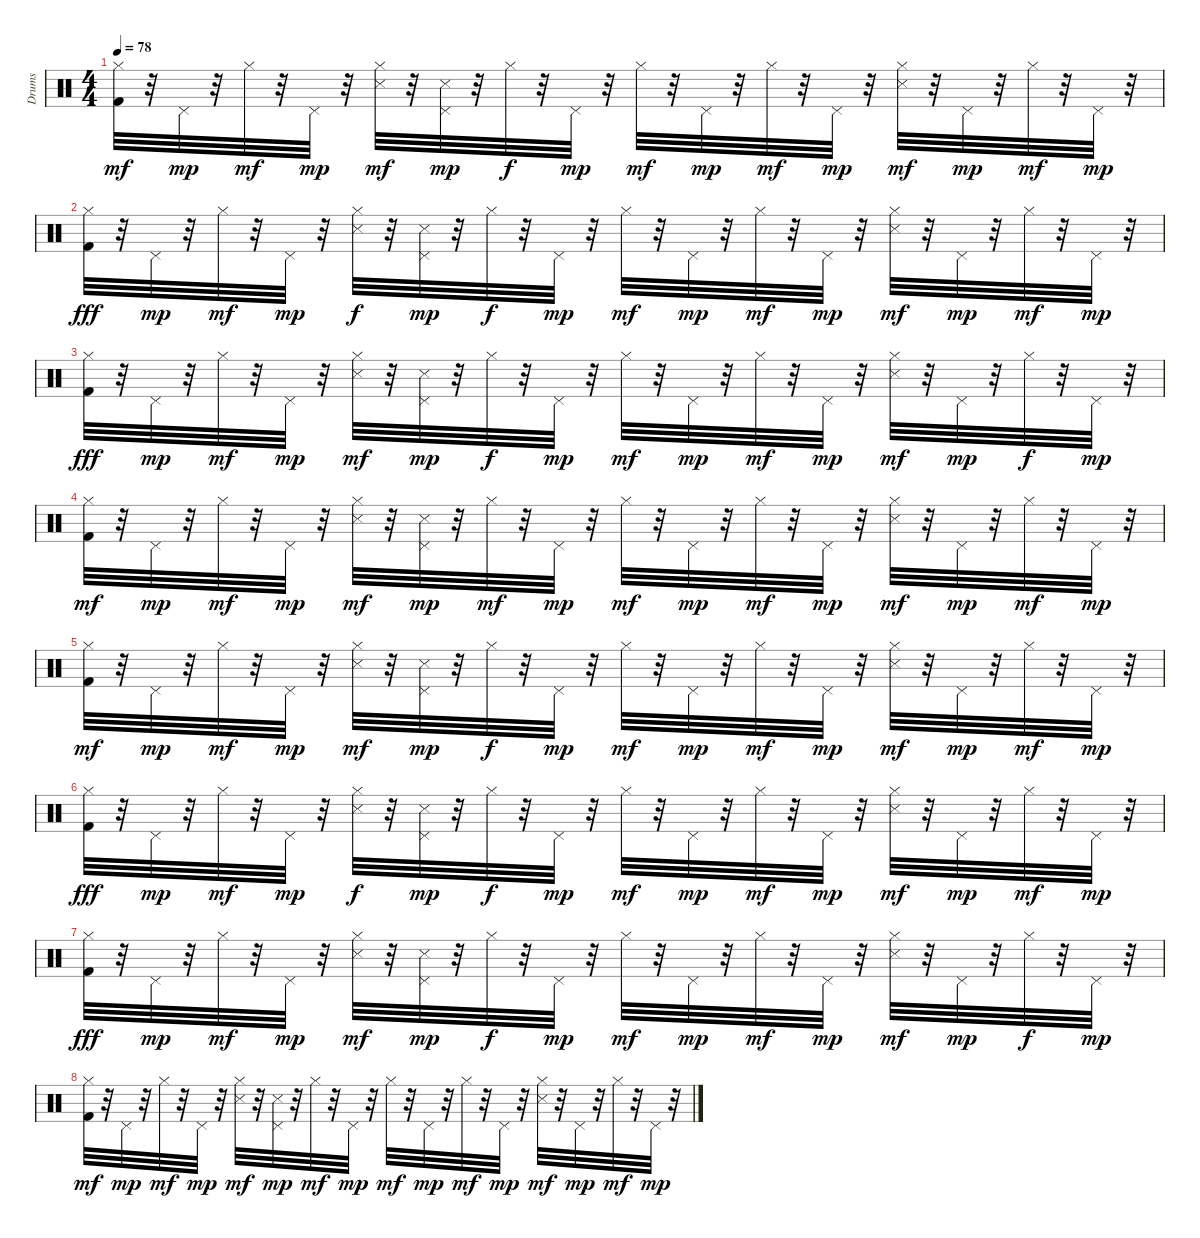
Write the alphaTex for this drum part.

\track ("Drums   " "Drums   ") {instrument percussion}
\staff {score}
\articulation defaults
\ts (4 4)
\tempo 78
\clef neutral
\ks c
("Kick (hit) 2" "Hi-Hat (closed)").32{dy mf} r.32 "Pedal Hi-Hat (hit)".32{dy mp} r.32 "Hi-Hat (closed)".32{dy mf} r.32 "Pedal Hi-Hat (hit)".32{dy mp} r.32 ("Hi-Hat (closed)" "Snare (side stick) 3").32{dy mf} r.32 ("Snare (side stick) 3" "Pedal Hi-Hat (hit)").32{dy mp} r.32 "Hi-Hat (closed)".32{dy f} r.32 "Pedal Hi-Hat (hit)".32{dy mp} r.32 "Hi-Hat (closed)".32{dy mf} r.32 "Pedal Hi-Hat (hit)".32{dy mp} r.32 "Hi-Hat (closed)".32{dy mf} r.32 "Pedal Hi-Hat (hit)".32{dy mp} r.32 ("Snare (side stick) 3" "Hi-Hat (closed)").32{dy mf} r.32 "Pedal Hi-Hat (hit)".32{dy mp} r.32 "Hi-Hat (closed)".32{dy mf} r.32 "Pedal Hi-Hat (hit)".32{dy mp} r.32 |
("Hi-Hat (closed)" "Kick (hit) 2").32{dy fff} r.32 "Pedal Hi-Hat (hit)".32{dy mp} r.32 "Hi-Hat (closed)".32{dy mf} r.32 "Pedal Hi-Hat (hit)".32{dy mp} r.32 ("Snare (side stick) 3" "Hi-Hat (closed)").32{dy f} r.32 ("Snare (side stick) 3" "Pedal Hi-Hat (hit)").32{dy mp} r.32 "Hi-Hat (closed)".32{dy f} r.32 "Pedal Hi-Hat (hit)".32{dy mp} r.32 "Hi-Hat (closed)".32{dy mf} r.32 "Pedal Hi-Hat (hit)".32{dy mp} r.32 "Hi-Hat (closed)".32{dy mf} r.32 "Pedal Hi-Hat (hit)".32{dy mp} r.32 ("Snare (side stick) 3" "Hi-Hat (closed)").32{dy mf} r.32 "Pedal Hi-Hat (hit)".32{dy mp} r.32 "Hi-Hat (closed)".32{dy mf} r.32 "Pedal Hi-Hat (hit)".32{dy mp} r.32 |
("Hi-Hat (closed)" "Kick (hit) 2").32{dy fff} r.32 "Pedal Hi-Hat (hit)".32{dy mp} r.32 "Hi-Hat (closed)".32{dy mf} r.32 "Pedal Hi-Hat (hit)".32{dy mp} r.32 ("Snare (side stick) 3" "Hi-Hat (closed)").32{dy mf} r.32 ("Snare (side stick) 3" "Pedal Hi-Hat (hit)").32{dy mp} r.32 "Hi-Hat (closed)".32{dy f} r.32 "Pedal Hi-Hat (hit)".32{dy mp} r.32 "Hi-Hat (closed)".32{dy mf} r.32 "Pedal Hi-Hat (hit)".32{dy mp} r.32 "Hi-Hat (closed)".32{dy mf} r.32 "Pedal Hi-Hat (hit)".32{dy mp} r.32 ("Hi-Hat (closed)" "Snare (side stick) 3").32{dy mf} r.32 "Pedal Hi-Hat (hit)".32{dy mp} r.32 "Hi-Hat (closed)".32{dy f} r.32 "Pedal Hi-Hat (hit)".32{dy mp} r.32 |
("Kick (hit) 2" "Hi-Hat (closed)").32{dy mf} r.32 "Pedal Hi-Hat (hit)".32{dy mp} r.32 "Hi-Hat (closed)".32{dy mf} r.32 "Pedal Hi-Hat (hit)".32{dy mp} r.32 ("Snare (side stick) 3" "Hi-Hat (closed)").32{dy mf} r.32 ("Snare (side stick) 3" "Pedal Hi-Hat (hit)").32{dy mp} r.32 "Hi-Hat (closed)".32{dy mf} r.32 "Pedal Hi-Hat (hit)".32{dy mp} r.32 "Hi-Hat (closed)".32{dy mf} r.32 "Pedal Hi-Hat (hit)".32{dy mp} r.32 "Hi-Hat (closed)".32{dy mf} r.32 "Pedal Hi-Hat (hit)".32{dy mp} r.32 ("Snare (side stick) 3" "Hi-Hat (closed)").32{dy mf} r.32 "Pedal Hi-Hat (hit)".32{dy mp} r.32 "Hi-Hat (closed)".32{dy mf} r.32 "Pedal Hi-Hat (hit)".32{dy mp} r.32 |
("Kick (hit) 2" "Hi-Hat (closed)").32{dy mf} r.32 "Pedal Hi-Hat (hit)".32{dy mp} r.32 "Hi-Hat (closed)".32{dy mf} r.32 "Pedal Hi-Hat (hit)".32{dy mp} r.32 ("Hi-Hat (closed)" "Snare (side stick) 3").32{dy mf} r.32 ("Snare (side stick) 3" "Pedal Hi-Hat (hit)").32{dy mp} r.32 "Hi-Hat (closed)".32{dy f} r.32 "Pedal Hi-Hat (hit)".32{dy mp} r.32 "Hi-Hat (closed)".32{dy mf} r.32 "Pedal Hi-Hat (hit)".32{dy mp} r.32 "Hi-Hat (closed)".32{dy mf} r.32 "Pedal Hi-Hat (hit)".32{dy mp} r.32 ("Snare (side stick) 3" "Hi-Hat (closed)").32{dy mf} r.32 "Pedal Hi-Hat (hit)".32{dy mp} r.32 "Hi-Hat (closed)".32{dy mf} r.32 "Pedal Hi-Hat (hit)".32{dy mp} r.32 |
("Hi-Hat (closed)" "Kick (hit) 2").32{dy fff} r.32 "Pedal Hi-Hat (hit)".32{dy mp} r.32 "Hi-Hat (closed)".32{dy mf} r.32 "Pedal Hi-Hat (hit)".32{dy mp} r.32 ("Snare (side stick) 3" "Hi-Hat (closed)").32{dy f} r.32 ("Snare (side stick) 3" "Pedal Hi-Hat (hit)").32{dy mp} r.32 "Hi-Hat (closed)".32{dy f} r.32 "Pedal Hi-Hat (hit)".32{dy mp} r.32 "Hi-Hat (closed)".32{dy mf} r.32 "Pedal Hi-Hat (hit)".32{dy mp} r.32 "Hi-Hat (closed)".32{dy mf} r.32 "Pedal Hi-Hat (hit)".32{dy mp} r.32 ("Snare (side stick) 3" "Hi-Hat (closed)").32{dy mf} r.32 "Pedal Hi-Hat (hit)".32{dy mp} r.32 "Hi-Hat (closed)".32{dy mf} r.32 "Pedal Hi-Hat (hit)".32{dy mp} r.32 |
("Hi-Hat (closed)" "Kick (hit) 2").32{dy fff} r.32 "Pedal Hi-Hat (hit)".32{dy mp} r.32 "Hi-Hat (closed)".32{dy mf} r.32 "Pedal Hi-Hat (hit)".32{dy mp} r.32 ("Snare (side stick) 3" "Hi-Hat (closed)").32{dy mf} r.32 ("Snare (side stick) 3" "Pedal Hi-Hat (hit)").32{dy mp} r.32 "Hi-Hat (closed)".32{dy f} r.32 "Pedal Hi-Hat (hit)".32{dy mp} r.32 "Hi-Hat (closed)".32{dy mf} r.32 "Pedal Hi-Hat (hit)".32{dy mp} r.32 "Hi-Hat (closed)".32{dy mf} r.32 "Pedal Hi-Hat (hit)".32{dy mp} r.32 ("Hi-Hat (closed)" "Snare (side stick) 3").32{dy mf} r.32 "Pedal Hi-Hat (hit)".32{dy mp} r.32 "Hi-Hat (closed)".32{dy f} r.32 "Pedal Hi-Hat (hit)".32{dy mp} r.32 |
("Kick (hit) 2" "Hi-Hat (closed)").32{dy mf} r.32 "Pedal Hi-Hat (hit)".32{dy mp} r.32 "Hi-Hat (closed)".32{dy mf} r.32 "Pedal Hi-Hat (hit)".32{dy mp} r.32 ("Snare (side stick) 3" "Hi-Hat (closed)").32{dy mf} r.32 ("Snare (side stick) 3" "Pedal Hi-Hat (hit)").32{dy mp} r.32 "Hi-Hat (closed)".32{dy mf} r.32 "Pedal Hi-Hat (hit)".32{dy mp} r.32 "Hi-Hat (closed)".32{dy mf} r.32 "Pedal Hi-Hat (hit)".32{dy mp} r.32 "Hi-Hat (closed)".32{dy mf} r.32 "Pedal Hi-Hat (hit)".32{dy mp} r.32 ("Snare (side stick) 3" "Hi-Hat (closed)").32{dy mf} r.32 "Pedal Hi-Hat (hit)".32{dy mp} r.32 "Hi-Hat (closed)".32{dy mf} r.32 "Pedal Hi-Hat (hit)".32{dy mp} r.32
